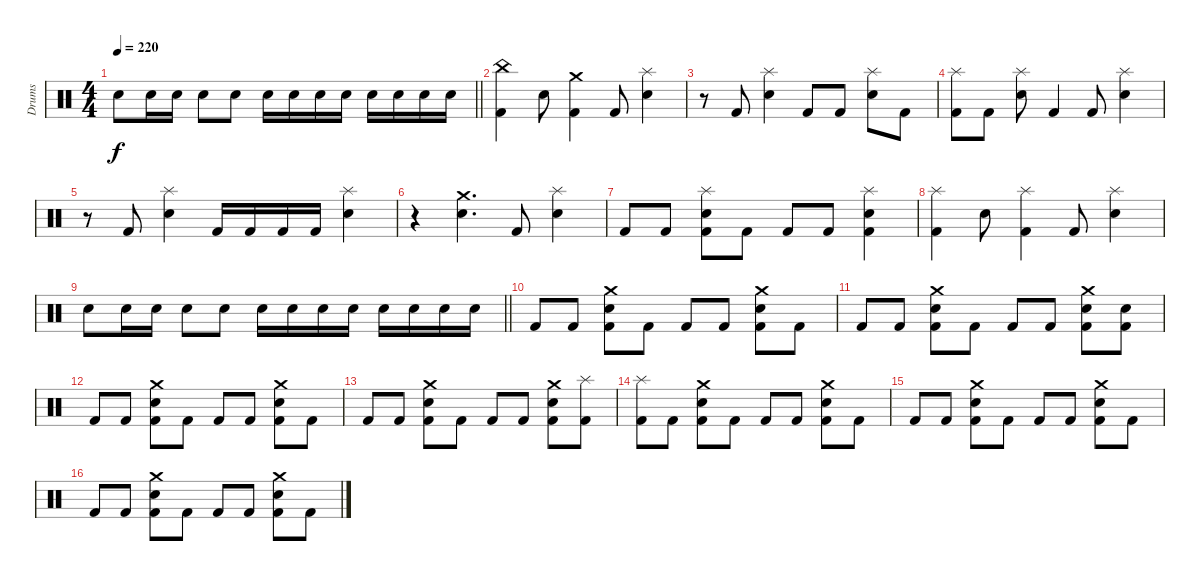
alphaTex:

\track ("Drums" "Drums") {instrument percussion}
\staff {score}
\articulation defaults
\ts (4 4)
\tempo 220
\clef neutral
\barLineRight lightlight
\ks c "Electric Snare (hit)".8{dy f} "Electric Snare (hit)".16 "Electric Snare (hit)".16 "Electric Snare (hit)".8 "Electric Snare (hit)".8 "Electric Snare (hit)".16 "Electric Snare (hit)".16 "Electric Snare (hit)".16 "Electric Snare (hit)".16 "Electric Snare (hit)".16 "Electric Snare (hit)".16 "Electric Snare (hit)".16 "Electric Snare (hit)".16
|
("China (hit)" "Kick (hit) 2").4 "Electric Snare (hit)".8 ("Crash medium (hit)" "Kick (hit) 2").4 "Kick (hit) 2".8 ("Splash (hit)" "Electric Snare (hit)").4 |
r.8 "Kick (hit) 2".8 ("Splash (hit)" "Electric Snare (hit)").4 "Kick (hit) 2".8 "Kick (hit) 2".8 ("Splash (hit)" "Electric Snare (hit)").8 "Kick (hit) 2".8 |
("Splash (hit)" "Kick (hit) 2").8 "Kick (hit) 2".8 ("Splash (hit)" "Electric Snare (hit)").8 "Kick (hit) 2".4 "Kick (hit) 2".8 ("Splash (hit)" "Electric Snare (hit)").4 |
r.8 "Kick (hit) 2".8 ("Splash (hit)" "Electric Snare (hit)").4 "Kick (hit) 2".16 "Kick (hit) 2".16 "Kick (hit) 2".16 "Kick (hit) 2".16 ("Splash (hit)" "Electric Snare (hit)").4 |
r.4{volume 0} ("Crash medium (hit)" "Electric Snare (hit)").4{d volume 16} "Kick (hit) 2".8 ("Splash (hit)" "Electric Snare (hit)").4 |
"Kick (hit) 2".8 "Kick (hit) 2".8 ("Splash (hit)" "Electric Snare (hit)" "Kick (hit) 2").8 "Kick (hit) 2".8 "Kick (hit) 2".8 "Kick (hit) 2".8 ("Splash (hit)" "Electric Snare (hit)" "Kick (hit) 2").4 |
("Splash (hit)" "Kick (hit) 2").4 "Electric Snare (hit)".8 ("Splash (hit)" "Kick (hit) 2").4 "Kick (hit) 2".8 ("Splash (hit)" "Electric Snare (hit)").4 |
\barLineRight lightlight "Electric Snare (hit)".8 "Electric Snare (hit)".16 "Electric Snare (hit)".16 "Electric Snare (hit)".8 "Electric Snare (hit)".8 "Electric Snare (hit)".16 "Electric Snare (hit)".16 "Electric Snare (hit)".16 "Electric Snare (hit)".16 "Electric Snare (hit)".16 "Electric Snare (hit)".16 "Electric Snare (hit)".16 "Electric Snare (hit)".16
|
\section ("" "")
"Kick (hit) 2".8 "Kick (hit) 2".8 ("Crash medium (hit)" "Electric Snare (hit)" "Kick (hit) 2").8 "Kick (hit) 2".8 "Kick (hit) 2".8 "Kick (hit) 2".8 ("Crash medium (hit)" "Electric Snare (hit)" "Kick (hit) 2").8 "Kick (hit) 2".8 |
"Kick (hit) 2".8 "Kick (hit) 2".8 ("Crash medium (hit)" "Electric Snare (hit)" "Kick (hit) 2").8 "Kick (hit) 2".8 "Kick (hit) 2".8 "Kick (hit) 2".8 ("Crash medium (hit)" "Electric Snare (hit)" "Kick (hit) 2").8 ("Electric Snare (hit)" "Kick (hit) 2").8 |
"Kick (hit) 2".8 "Kick (hit) 2".8 ("Crash medium (hit)" "Electric Snare (hit)" "Kick (hit) 2").8 "Kick (hit) 2".8 "Kick (hit) 2".8 "Kick (hit) 2".8 ("Crash medium (hit)" "Electric Snare (hit)" "Kick (hit) 2").8 "Kick (hit) 2".8 |
"Kick (hit) 2".8 "Kick (hit) 2".8 ("Crash medium (hit)" "Electric Snare (hit)" "Kick (hit) 2").8 "Kick (hit) 2".8 "Kick (hit) 2".8 "Kick (hit) 2".8 ("Crash medium (hit)" "Electric Snare (hit)" "Kick (hit) 2").8 ("Splash (hit)" "Kick (hit) 2").8 |
("Splash (hit)" "Kick (hit) 2").8 "Kick (hit) 2".8 ("Crash medium (hit)" "Electric Snare (hit)" "Kick (hit) 2").8 "Kick (hit) 2".8 "Kick (hit) 2".8 "Kick (hit) 2".8 ("Crash medium (hit)" "Electric Snare (hit)" "Kick (hit) 2").8 "Kick (hit) 2".8 |
"Kick (hit) 2".8 "Kick (hit) 2".8 ("Crash medium (hit)" "Electric Snare (hit)" "Kick (hit) 2").8 "Kick (hit) 2".8 "Kick (hit) 2".8 "Kick (hit) 2".8 ("Crash medium (hit)" "Electric Snare (hit)" "Kick (hit) 2").8 "Kick (hit) 2".8 |
"Kick (hit) 2".8 "Kick (hit) 2".8 ("Crash medium (hit)" "Electric Snare (hit)" "Kick (hit) 2").8 "Kick (hit) 2".8 "Kick (hit) 2".8 "Kick (hit) 2".8 ("Crash medium (hit)" "Electric Snare (hit)" "Kick (hit) 2").8 "Kick (hit) 2".8
